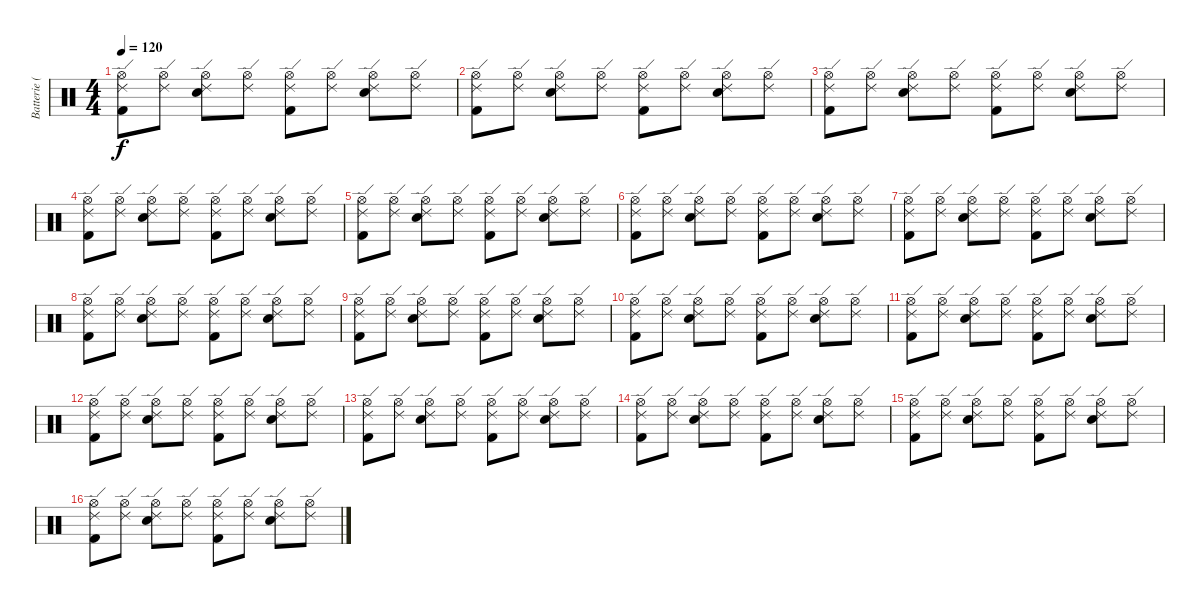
\track ("Batterie (David Lovering)" "Batterie (") {instrument percussion}
\staff {score}
\articulation defaults
\ts (4 4)
\tempo 120
\clef neutral
\ks c
("Ride (edge) 2" "Hi-Hat (open)" "Kick (hit) 2").8{dy f} ("Ride (edge) 2" "Hi-Hat (open)").8 ("Ride (edge) 2" "Hi-Hat (open)" "Electric Snare (hit)").8 ("Ride (edge) 2" "Hi-Hat (open)").8 ("Ride (edge) 2" "Hi-Hat (open)" "Kick (hit) 2").8 ("Ride (edge) 2" "Hi-Hat (open)").8 ("Ride (edge) 2" "Hi-Hat (open)" "Electric Snare (hit)").8 ("Ride (edge) 2" "Hi-Hat (open)").8 |
("Ride (edge) 2" "Hi-Hat (open)" "Kick (hit) 2").8 ("Ride (edge) 2" "Hi-Hat (open)").8 ("Ride (edge) 2" "Hi-Hat (open)" "Electric Snare (hit)").8 ("Ride (edge) 2" "Hi-Hat (open)").8 ("Ride (edge) 2" "Hi-Hat (open)" "Kick (hit) 2").8 ("Ride (edge) 2" "Hi-Hat (open)").8 ("Ride (edge) 2" "Hi-Hat (open)" "Electric Snare (hit)").8 ("Ride (edge) 2" "Hi-Hat (open)").8 |
("Ride (edge) 2" "Hi-Hat (open)" "Kick (hit) 2").8 ("Ride (edge) 2" "Hi-Hat (open)").8 ("Ride (edge) 2" "Hi-Hat (open)" "Electric Snare (hit)").8 ("Ride (edge) 2" "Hi-Hat (open)").8 ("Ride (edge) 2" "Hi-Hat (open)" "Kick (hit) 2").8 ("Ride (edge) 2" "Hi-Hat (open)").8 ("Ride (edge) 2" "Hi-Hat (open)" "Electric Snare (hit)").8 ("Ride (edge) 2" "Hi-Hat (open)").8 |
("Ride (edge) 2" "Hi-Hat (open)" "Kick (hit) 2").8 ("Ride (edge) 2" "Hi-Hat (open)").8 ("Ride (edge) 2" "Hi-Hat (open)" "Electric Snare (hit)").8 ("Ride (edge) 2" "Hi-Hat (open)").8 ("Ride (edge) 2" "Hi-Hat (open)" "Kick (hit) 2").8 ("Ride (edge) 2" "Hi-Hat (open)").8 ("Ride (edge) 2" "Hi-Hat (open)" "Electric Snare (hit)").8 ("Ride (edge) 2" "Hi-Hat (open)").8 |
("Ride (edge) 2" "Hi-Hat (open)" "Kick (hit) 2").8 ("Ride (edge) 2" "Hi-Hat (open)").8 ("Ride (edge) 2" "Hi-Hat (open)" "Electric Snare (hit)").8 ("Ride (edge) 2" "Hi-Hat (open)").8 ("Ride (edge) 2" "Hi-Hat (open)" "Kick (hit) 2").8 ("Ride (edge) 2" "Hi-Hat (open)").8 ("Ride (edge) 2" "Hi-Hat (open)" "Electric Snare (hit)").8 ("Ride (edge) 2" "Hi-Hat (open)").8 |
("Ride (edge) 2" "Hi-Hat (open)" "Kick (hit) 2").8 ("Ride (edge) 2" "Hi-Hat (open)").8 ("Ride (edge) 2" "Hi-Hat (open)" "Electric Snare (hit)").8 ("Ride (edge) 2" "Hi-Hat (open)").8 ("Ride (edge) 2" "Hi-Hat (open)" "Kick (hit) 2").8 ("Ride (edge) 2" "Hi-Hat (open)").8 ("Ride (edge) 2" "Hi-Hat (open)" "Electric Snare (hit)").8 ("Ride (edge) 2" "Hi-Hat (open)").8 |
("Ride (edge) 2" "Hi-Hat (open)" "Kick (hit) 2").8 ("Ride (edge) 2" "Hi-Hat (open)").8 ("Ride (edge) 2" "Hi-Hat (open)" "Electric Snare (hit)").8 ("Ride (edge) 2" "Hi-Hat (open)").8 ("Ride (edge) 2" "Hi-Hat (open)" "Kick (hit) 2").8 ("Ride (edge) 2" "Hi-Hat (open)").8 ("Ride (edge) 2" "Hi-Hat (open)" "Electric Snare (hit)").8 ("Ride (edge) 2" "Hi-Hat (open)").8 |
("Ride (edge) 2" "Hi-Hat (open)" "Kick (hit) 2").8 ("Ride (edge) 2" "Hi-Hat (open)").8 ("Ride (edge) 2" "Hi-Hat (open)" "Electric Snare (hit)").8 ("Ride (edge) 2" "Hi-Hat (open)").8 ("Ride (edge) 2" "Hi-Hat (open)" "Kick (hit) 2").8 ("Ride (edge) 2" "Hi-Hat (open)").8 ("Ride (edge) 2" "Hi-Hat (open)" "Electric Snare (hit)").8 ("Ride (edge) 2" "Hi-Hat (open)").8 |
("Ride (edge) 2" "Hi-Hat (open)" "Kick (hit) 2").8 ("Ride (edge) 2" "Hi-Hat (open)").8 ("Ride (edge) 2" "Hi-Hat (open)" "Electric Snare (hit)").8 ("Ride (edge) 2" "Hi-Hat (open)").8 ("Ride (edge) 2" "Hi-Hat (open)" "Kick (hit) 2").8 ("Ride (edge) 2" "Hi-Hat (open)").8 ("Ride (edge) 2" "Hi-Hat (open)" "Electric Snare (hit)").8 ("Ride (edge) 2" "Hi-Hat (open)").8 |
("Ride (edge) 2" "Hi-Hat (open)" "Kick (hit) 2").8 ("Ride (edge) 2" "Hi-Hat (open)").8 ("Ride (edge) 2" "Hi-Hat (open)" "Electric Snare (hit)").8 ("Ride (edge) 2" "Hi-Hat (open)").8 ("Ride (edge) 2" "Hi-Hat (open)" "Kick (hit) 2").8 ("Ride (edge) 2" "Hi-Hat (open)").8 ("Ride (edge) 2" "Hi-Hat (open)" "Electric Snare (hit)").8 ("Ride (edge) 2" "Hi-Hat (open)").8 |
("Ride (edge) 2" "Hi-Hat (open)" "Kick (hit) 2").8 ("Ride (edge) 2" "Hi-Hat (open)").8 ("Ride (edge) 2" "Hi-Hat (open)" "Electric Snare (hit)").8 ("Ride (edge) 2" "Hi-Hat (open)").8 ("Ride (edge) 2" "Hi-Hat (open)" "Kick (hit) 2").8 ("Ride (edge) 2" "Hi-Hat (open)").8 ("Ride (edge) 2" "Hi-Hat (open)" "Electric Snare (hit)").8 ("Ride (edge) 2" "Hi-Hat (open)").8 |
("Ride (edge) 2" "Hi-Hat (open)" "Kick (hit) 2").8 ("Ride (edge) 2" "Hi-Hat (open)").8 ("Ride (edge) 2" "Hi-Hat (open)" "Electric Snare (hit)").8 ("Ride (edge) 2" "Hi-Hat (open)").8 ("Ride (edge) 2" "Hi-Hat (open)" "Kick (hit) 2").8 ("Ride (edge) 2" "Hi-Hat (open)").8 ("Ride (edge) 2" "Hi-Hat (open)" "Electric Snare (hit)").8 ("Ride (edge) 2" "Hi-Hat (open)").8 |
("Ride (edge) 2" "Hi-Hat (open)" "Kick (hit) 2").8 ("Ride (edge) 2" "Hi-Hat (open)").8 ("Ride (edge) 2" "Hi-Hat (open)" "Electric Snare (hit)").8 ("Ride (edge) 2" "Hi-Hat (open)").8 ("Ride (edge) 2" "Hi-Hat (open)" "Kick (hit) 2").8 ("Ride (edge) 2" "Hi-Hat (open)").8 ("Ride (edge) 2" "Hi-Hat (open)" "Electric Snare (hit)").8 ("Ride (edge) 2" "Hi-Hat (open)").8 |
("Ride (edge) 2" "Hi-Hat (open)" "Kick (hit) 2").8 ("Ride (edge) 2" "Hi-Hat (open)").8 ("Ride (edge) 2" "Hi-Hat (open)" "Electric Snare (hit)").8 ("Ride (edge) 2" "Hi-Hat (open)").8 ("Ride (edge) 2" "Hi-Hat (open)" "Kick (hit) 2").8 ("Ride (edge) 2" "Hi-Hat (open)").8 ("Ride (edge) 2" "Hi-Hat (open)" "Electric Snare (hit)").8 ("Ride (edge) 2" "Hi-Hat (open)").8 |
("Ride (edge) 2" "Hi-Hat (open)" "Kick (hit) 2").8 ("Ride (edge) 2" "Hi-Hat (open)").8 ("Ride (edge) 2" "Hi-Hat (open)" "Electric Snare (hit)").8 ("Ride (edge) 2" "Hi-Hat (open)").8 ("Ride (edge) 2" "Hi-Hat (open)" "Kick (hit) 2").8 ("Ride (edge) 2" "Hi-Hat (open)").8 ("Ride (edge) 2" "Hi-Hat (open)" "Electric Snare (hit)").8 ("Ride (edge) 2" "Hi-Hat (open)").8 |
("Ride (edge) 2" "Hi-Hat (open)" "Kick (hit) 2").8 ("Ride (edge) 2" "Hi-Hat (open)").8 ("Ride (edge) 2" "Hi-Hat (open)" "Electric Snare (hit)").8 ("Ride (edge) 2" "Hi-Hat (open)").8 ("Ride (edge) 2" "Hi-Hat (open)" "Kick (hit) 2").8 ("Ride (edge) 2" "Hi-Hat (open)").8 ("Ride (edge) 2" "Hi-Hat (open)" "Electric Snare (hit)").8 ("Ride (edge) 2" "Hi-Hat (open)").8
